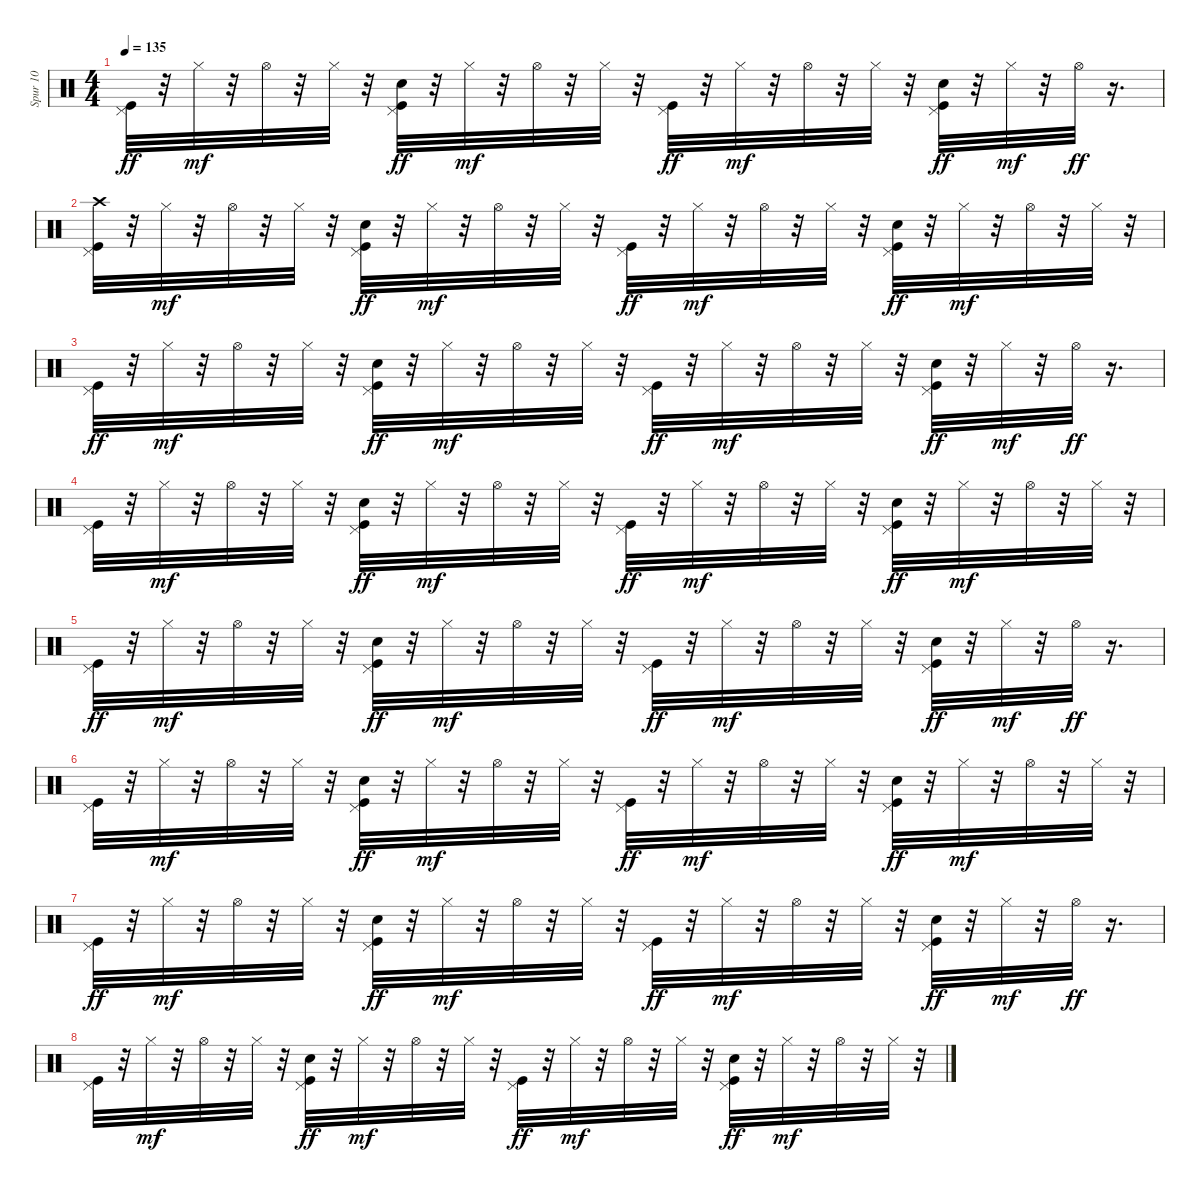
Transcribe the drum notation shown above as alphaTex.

\track ("Spur 10" "Spur 10") {instrument percussion}
\staff {score}
\articulation defaults
\ts (4 4)
\tempo 135
\clef neutral
\ks c
("Kick (hit)" "Pedal Hi-Hat (hit)").32{dy ff} r.32 "Hi-Hat (closed)".32{dy mf} r.32 "Hi-Hat (open)".32 r.32 "Hi-Hat (closed)".32 r.32 ("Kick (hit)" "Hand Clap (hit)" "Pedal Hi-Hat (hit)").32{dy ff} r.32 "Hi-Hat (closed)".32{dy mf} r.32 "Hi-Hat (open)".32 r.32 "Hi-Hat (closed)".32 r.32 ("Kick (hit)" "Pedal Hi-Hat (hit)").32{dy ff} r.32 "Hi-Hat (closed)".32{dy mf} r.32 "Hi-Hat (open)".32 r.32 "Hi-Hat (closed)".32 r.32 ("Kick (hit)" "Hand Clap (hit)" "Pedal Hi-Hat (hit)").32{dy ff} r.32 "Hi-Hat (closed)".32{dy mf} r.32 "Hi-Hat (open)".32{dy ff} r.16{d} |
("Crash high (hit)" "Kick (hit)" "Pedal Hi-Hat (hit)").32 r.32 "Hi-Hat (closed)".32{dy mf} r.32 "Hi-Hat (open)".32 r.32 "Hi-Hat (closed)".32 r.32 ("Kick (hit)" "Hand Clap (hit)" "Pedal Hi-Hat (hit)").32{dy ff} r.32 "Hi-Hat (closed)".32{dy mf} r.32 "Hi-Hat (open)".32 r.32 "Hi-Hat (closed)".32 r.32 ("Kick (hit)" "Pedal Hi-Hat (hit)").32{dy ff} r.32 "Hi-Hat (closed)".32{dy mf} r.32 "Hi-Hat (open)".32 r.32 "Hi-Hat (closed)".32 r.32 ("Kick (hit)" "Hand Clap (hit)" "Pedal Hi-Hat (hit)").32{dy ff} r.32 "Hi-Hat (closed)".32{dy mf} r.32 "Hi-Hat (open)".32 r.32 "Hi-Hat (closed)".32 r.32 |
("Kick (hit)" "Pedal Hi-Hat (hit)").32{dy ff} r.32 "Hi-Hat (closed)".32{dy mf} r.32 "Hi-Hat (open)".32 r.32 "Hi-Hat (closed)".32 r.32 ("Kick (hit)" "Hand Clap (hit)" "Pedal Hi-Hat (hit)").32{dy ff} r.32 "Hi-Hat (closed)".32{dy mf} r.32 "Hi-Hat (open)".32 r.32 "Hi-Hat (closed)".32 r.32 ("Kick (hit)" "Pedal Hi-Hat (hit)").32{dy ff} r.32 "Hi-Hat (closed)".32{dy mf} r.32 "Hi-Hat (open)".32 r.32 "Hi-Hat (closed)".32 r.32 ("Kick (hit)" "Hand Clap (hit)" "Pedal Hi-Hat (hit)").32{dy ff} r.32 "Hi-Hat (closed)".32{dy mf} r.32 "Hi-Hat (open)".32{dy ff} r.16{d} |
("Kick (hit)" "Pedal Hi-Hat (hit)").32 r.32 "Hi-Hat (closed)".32{dy mf} r.32 "Hi-Hat (open)".32 r.32 "Hi-Hat (closed)".32 r.32 ("Kick (hit)" "Hand Clap (hit)" "Pedal Hi-Hat (hit)").32{dy ff} r.32 "Hi-Hat (closed)".32{dy mf} r.32 "Hi-Hat (open)".32 r.32 "Hi-Hat (closed)".32 r.32 ("Kick (hit)" "Pedal Hi-Hat (hit)").32{dy ff} r.32 "Hi-Hat (closed)".32{dy mf} r.32 "Hi-Hat (open)".32 r.32 "Hi-Hat (closed)".32 r.32 ("Kick (hit)" "Hand Clap (hit)" "Pedal Hi-Hat (hit)").32{dy ff} r.32 "Hi-Hat (closed)".32{dy mf} r.32 "Hi-Hat (open)".32 r.32 "Hi-Hat (closed)".32 r.32 |
("Kick (hit)" "Pedal Hi-Hat (hit)").32{dy ff} r.32 "Hi-Hat (closed)".32{dy mf} r.32 "Hi-Hat (open)".32 r.32 "Hi-Hat (closed)".32 r.32 ("Kick (hit)" "Hand Clap (hit)" "Pedal Hi-Hat (hit)").32{dy ff} r.32 "Hi-Hat (closed)".32{dy mf} r.32 "Hi-Hat (open)".32 r.32 "Hi-Hat (closed)".32 r.32 ("Kick (hit)" "Pedal Hi-Hat (hit)").32{dy ff} r.32 "Hi-Hat (closed)".32{dy mf} r.32 "Hi-Hat (open)".32 r.32 "Hi-Hat (closed)".32 r.32 ("Kick (hit)" "Hand Clap (hit)" "Pedal Hi-Hat (hit)").32{dy ff} r.32 "Hi-Hat (closed)".32{dy mf} r.32 "Hi-Hat (open)".32{dy ff} r.16{d} |
("Kick (hit)" "Pedal Hi-Hat (hit)").32 r.32 "Hi-Hat (closed)".32{dy mf} r.32 "Hi-Hat (open)".32 r.32 "Hi-Hat (closed)".32 r.32 ("Kick (hit)" "Hand Clap (hit)" "Pedal Hi-Hat (hit)").32{dy ff} r.32 "Hi-Hat (closed)".32{dy mf} r.32 "Hi-Hat (open)".32 r.32 "Hi-Hat (closed)".32 r.32 ("Kick (hit)" "Pedal Hi-Hat (hit)").32{dy ff} r.32 "Hi-Hat (closed)".32{dy mf} r.32 "Hi-Hat (open)".32 r.32 "Hi-Hat (closed)".32 r.32 ("Kick (hit)" "Hand Clap (hit)" "Pedal Hi-Hat (hit)").32{dy ff} r.32 "Hi-Hat (closed)".32{dy mf} r.32 "Hi-Hat (open)".32 r.32 "Hi-Hat (closed)".32 r.32 |
("Kick (hit)" "Pedal Hi-Hat (hit)").32{dy ff} r.32 "Hi-Hat (closed)".32{dy mf} r.32 "Hi-Hat (open)".32 r.32 "Hi-Hat (closed)".32 r.32 ("Kick (hit)" "Hand Clap (hit)" "Pedal Hi-Hat (hit)").32{dy ff} r.32 "Hi-Hat (closed)".32{dy mf} r.32 "Hi-Hat (open)".32 r.32 "Hi-Hat (closed)".32 r.32 ("Kick (hit)" "Pedal Hi-Hat (hit)").32{dy ff} r.32 "Hi-Hat (closed)".32{dy mf} r.32 "Hi-Hat (open)".32 r.32 "Hi-Hat (closed)".32 r.32 ("Kick (hit)" "Hand Clap (hit)" "Pedal Hi-Hat (hit)").32{dy ff} r.32 "Hi-Hat (closed)".32{dy mf} r.32 "Hi-Hat (open)".32{dy ff} r.16{d} |
("Kick (hit)" "Pedal Hi-Hat (hit)").32 r.32 "Hi-Hat (closed)".32{dy mf} r.32 "Hi-Hat (open)".32 r.32 "Hi-Hat (closed)".32 r.32 ("Kick (hit)" "Hand Clap (hit)" "Pedal Hi-Hat (hit)").32{dy ff} r.32 "Hi-Hat (closed)".32{dy mf} r.32 "Hi-Hat (open)".32 r.32 "Hi-Hat (closed)".32 r.32 ("Kick (hit)" "Pedal Hi-Hat (hit)").32{dy ff} r.32 "Hi-Hat (closed)".32{dy mf} r.32 "Hi-Hat (open)".32 r.32 "Hi-Hat (closed)".32 r.32 ("Kick (hit)" "Hand Clap (hit)" "Pedal Hi-Hat (hit)").32{dy ff} r.32 "Hi-Hat (closed)".32{dy mf} r.32 "Hi-Hat (open)".32 r.32 "Hi-Hat (closed)".32 r.32
